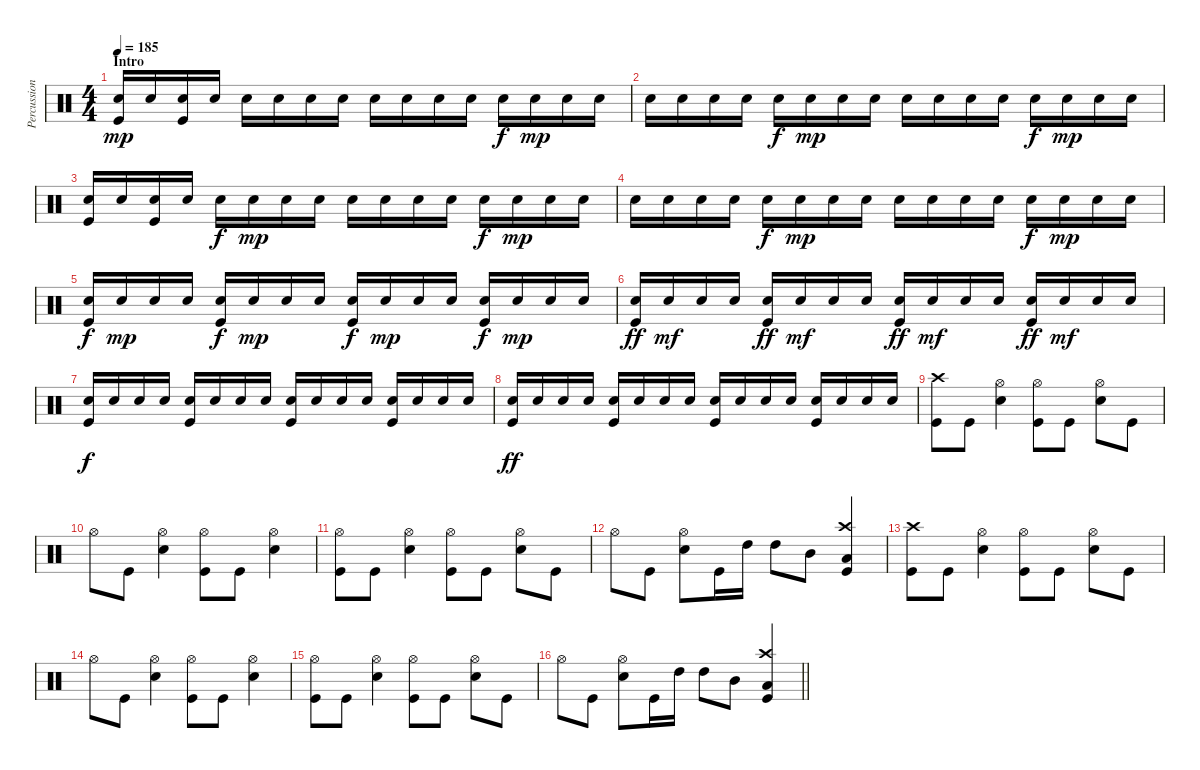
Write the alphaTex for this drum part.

\track ("Percussion" "Percussion") {instrument percussion}
\staff {score}
\articulation defaults
\ts (4 4)
\section ("" "Intro")
\tempo 185
\clef neutral
\ks c
("Snare (hit) 2" "Kick (hit)").16{dy mp} "Snare (hit) 2".16 ("Snare (hit) 2" "Kick (hit)").16 "Snare (hit) 2".16 "Snare (hit) 2".16 "Snare (hit) 2".16 "Snare (hit) 2".16 "Snare (hit) 2".16 "Snare (hit) 2".16 "Snare (hit) 2".16 "Snare (hit) 2".16 "Snare (hit) 2".16 "Snare (hit) 2".16{dy f} "Snare (hit) 2".16{dy mp} "Snare (hit) 2".16 "Snare (hit) 2".16 |
"Snare (hit) 2".16 "Snare (hit) 2".16 "Snare (hit) 2".16 "Snare (hit) 2".16 "Snare (hit) 2".16{dy f} "Snare (hit) 2".16{dy mp} "Snare (hit) 2".16 "Snare (hit) 2".16 "Snare (hit) 2".16 "Snare (hit) 2".16 "Snare (hit) 2".16 "Snare (hit) 2".16 "Snare (hit) 2".16{dy f} "Snare (hit) 2".16{dy mp} "Snare (hit) 2".16 "Snare (hit) 2".16 |
("Snare (hit) 2" "Kick (hit)").16 "Snare (hit) 2".16 ("Snare (hit) 2" "Kick (hit)").16 "Snare (hit) 2".16 "Snare (hit) 2".16{dy f} "Snare (hit) 2".16{dy mp} "Snare (hit) 2".16 "Snare (hit) 2".16 "Snare (hit) 2".16 "Snare (hit) 2".16 "Snare (hit) 2".16 "Snare (hit) 2".16 "Snare (hit) 2".16{dy f} "Snare (hit) 2".16{dy mp} "Snare (hit) 2".16 "Snare (hit) 2".16 |
"Snare (hit) 2".16 "Snare (hit) 2".16 "Snare (hit) 2".16 "Snare (hit) 2".16 "Snare (hit) 2".16{dy f} "Snare (hit) 2".16{dy mp} "Snare (hit) 2".16 "Snare (hit) 2".16 "Snare (hit) 2".16 "Snare (hit) 2".16 "Snare (hit) 2".16 "Snare (hit) 2".16 "Snare (hit) 2".16{dy f} "Snare (hit) 2".16{dy mp} "Snare (hit) 2".16 "Snare (hit) 2".16 |
("Snare (hit) 2" "Kick (hit)").16{dy f} "Snare (hit) 2".16{dy mp} "Snare (hit) 2".16 "Snare (hit) 2".16 ("Snare (hit) 2" "Kick (hit)").16{dy f} "Snare (hit) 2".16{dy mp} "Snare (hit) 2".16 "Snare (hit) 2".16 ("Snare (hit) 2" "Kick (hit)").16{dy f} "Snare (hit) 2".16{dy mp} "Snare (hit) 2".16 "Snare (hit) 2".16 ("Snare (hit) 2" "Kick (hit)").16{dy f} "Snare (hit) 2".16{dy mp} "Snare (hit) 2".16 "Snare (hit) 2".16 |
("Snare (hit) 2" "Kick (hit)").16{dy ff} "Snare (hit) 2".16{dy mf} "Snare (hit) 2".16 "Snare (hit) 2".16 ("Snare (hit) 2" "Kick (hit)").16{dy ff} "Snare (hit) 2".16{dy mf} "Snare (hit) 2".16 "Snare (hit) 2".16 ("Snare (hit) 2" "Kick (hit)").16{dy ff} "Snare (hit) 2".16{dy mf} "Snare (hit) 2".16 "Snare (hit) 2".16 ("Snare (hit) 2" "Kick (hit)").16{dy ff} "Snare (hit) 2".16{dy mf} "Snare (hit) 2".16 "Snare (hit) 2".16 |
("Snare (hit) 2" "Kick (hit)").16{dy f} "Snare (hit) 2".16 "Snare (hit) 2".16 "Snare (hit) 2".16 ("Snare (hit) 2" "Kick (hit)").16 "Snare (hit) 2".16 "Snare (hit) 2".16 "Snare (hit) 2".16 ("Snare (hit) 2" "Kick (hit)").16 "Snare (hit) 2".16 "Snare (hit) 2".16 "Snare (hit) 2".16 ("Snare (hit) 2" "Kick (hit)").16 "Snare (hit) 2".16 "Snare (hit) 2".16 "Snare (hit) 2".16 |
("Snare (hit) 2" "Kick (hit)").16{dy ff} "Snare (hit) 2".16 "Snare (hit) 2".16 "Snare (hit) 2".16 ("Snare (hit) 2" "Kick (hit)").16 "Snare (hit) 2".16 "Snare (hit) 2".16 "Snare (hit) 2".16 ("Snare (hit) 2" "Kick (hit)").16 "Snare (hit) 2".16 "Snare (hit) 2".16 "Snare (hit) 2".16 ("Snare (hit) 2" "Kick (hit)").16 "Snare (hit) 2".16 "Snare (hit) 2".16 "Snare (hit) 2".16 |
("Kick (hit)" "Crash high (hit)").8 "Kick (hit)".8 ("Snare (hit) 2" "Hi-Hat (open)").4 ("Hi-Hat (open)" "Kick (hit)").8 "Kick (hit)".8 ("Snare (hit) 2" "Hi-Hat (open)").8 "Kick (hit)".8 |
"Hi-Hat (open)".8 "Kick (hit)".8 ("Snare (hit) 2" "Hi-Hat (open)").4 ("Hi-Hat (open)" "Kick (hit)").8 "Kick (hit)".8 ("Snare (hit) 2" "Hi-Hat (open)").4 |
("Kick (hit)" "Hi-Hat (open)").8 "Kick (hit)".8 ("Snare (hit) 2" "Hi-Hat (open)").4 ("Hi-Hat (open)" "Kick (hit)").8 "Kick (hit)".8 ("Snare (hit) 2" "Hi-Hat (open)").8 "Kick (hit)".8 |
"Hi-Hat (open)".8 "Kick (hit)".8 ("Snare (hit) 2" "Hi-Hat (open)").8 "Kick (hit)".16 "High Tom (hit)".16 "High Tom (hit)".8 "Mid Tom (hit)".8 ("Crash high (hit)" "Low Tom (hit)" "Kick (hit)").4 |
("Kick (hit)" "Crash high (hit)").8 "Kick (hit)".8 ("Snare (hit) 2" "Hi-Hat (open)").4 ("Hi-Hat (open)" "Kick (hit)").8 "Kick (hit)".8 ("Snare (hit) 2" "Hi-Hat (open)").8 "Kick (hit)".8 |
"Hi-Hat (open)".8 "Kick (hit)".8 ("Snare (hit) 2" "Hi-Hat (open)").4 ("Hi-Hat (open)" "Kick (hit)").8 "Kick (hit)".8 ("Snare (hit) 2" "Hi-Hat (open)").4 |
("Kick (hit)" "Hi-Hat (open)").8 "Kick (hit)".8 ("Snare (hit) 2" "Hi-Hat (open)").4 ("Hi-Hat (open)" "Kick (hit)").8 "Kick (hit)".8 ("Snare (hit) 2" "Hi-Hat (open)").8 "Kick (hit)".8 |
\barLineRight lightlight "Hi-Hat (open)".8 "Kick (hit)".8
("Snare (hit) 2" "Hi-Hat (open)").8 "Kick (hit)".16 "High Tom (hit)".16 "High Tom (hit)".8 "Mid Tom (hit)".8 ("Crash high (hit)" "Low Tom (hit)" "Kick (hit)").4
